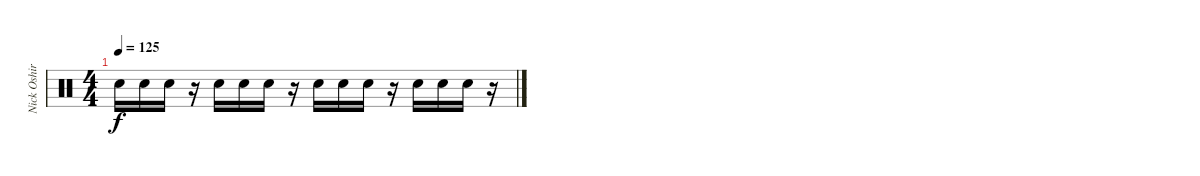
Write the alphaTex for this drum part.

\track ("Nick Oshiro" "Nick Oshir") {instrument percussion}
\staff {score}
\articulation defaults
\ts (4 4)
\tempo 125
\clef neutral
\ks c "Electric Snare (hit)".16{dy f} "Electric Snare (hit)".16 "Electric Snare (hit)".16
r.16 "Electric Snare (hit)".16 "Electric Snare (hit)".16 "Electric Snare (hit)".16 r.16 "Electric Snare (hit)".16 "Electric Snare (hit)".16 "Electric Snare (hit)".16 r.16 "Electric Snare (hit)".16 "Electric Snare (hit)".16 "Electric Snare (hit)".16 r.16
